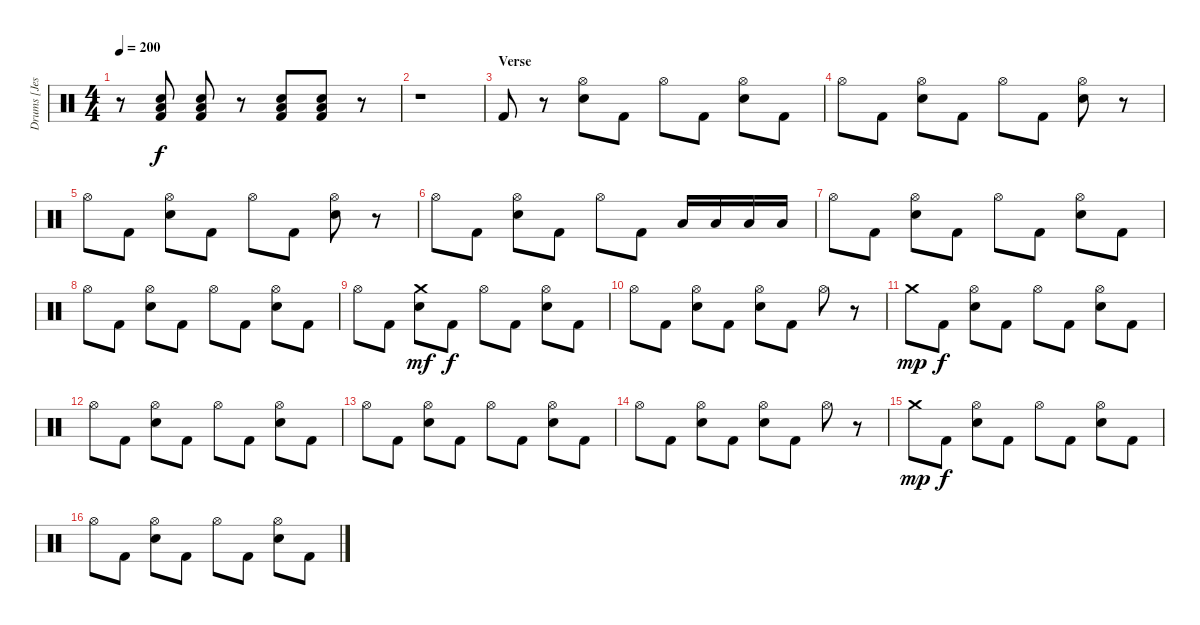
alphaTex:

\track ("Drums [Jesse Ingelevics]" "Drums [Jes") {instrument percussion}
\staff {score}
\articulation defaults
\ts (4 4)
\tempo 200
\clef neutral
\ks c
r.8{dy f} ("Low Floor Tom (hit)" "Electric Snare (hit)" "Kick (hit) 2").8 ("Low Floor Tom (hit)" "Electric Snare (hit)" "Kick (hit) 2").8 r.8 ("Low Floor Tom (hit)" "Electric Snare (hit)" "Kick (hit) 2").8 ("Low Floor Tom (hit)" "Electric Snare (hit)" "Kick (hit) 2").8 r.8 |
r.1 |
\section ("" "Verse")
"Kick (hit) 2".8 r.8 ("Hi-Hat (open)" "Electric Snare (hit)").8 "Kick (hit) 2".8 "Hi-Hat (open)".8 "Kick (hit) 2".8 ("Hi-Hat (open)" "Electric Snare (hit)").8 "Kick (hit) 2".8 |
"Hi-Hat (open)".8 "Kick (hit) 2".8 ("Hi-Hat (open)" "Electric Snare (hit)").8 "Kick (hit) 2".8 "Hi-Hat (open)".8 "Kick (hit) 2".8 ("Hi-Hat (open)" "Electric Snare (hit)").8 r.8 |
"Hi-Hat (open)".8 "Kick (hit) 2".8 ("Hi-Hat (open)" "Electric Snare (hit)").8 "Kick (hit) 2".8 "Hi-Hat (open)".8 "Kick (hit) 2".8 ("Hi-Hat (open)" "Electric Snare (hit)").8 r.8 |
"Hi-Hat (open)".8 "Kick (hit) 2".8 ("Hi-Hat (open)" "Electric Snare (hit)").8 "Kick (hit) 2".8 "Hi-Hat (open)".8 "Kick (hit) 2".8 "Low Tom (hit)".16 "Low Tom (hit)".16 "Low Tom (hit)".16 "Low Tom (hit)".16 |
"Hi-Hat (open)".8 "Kick (hit) 2".8 ("Hi-Hat (open)" "Electric Snare (hit)").8 "Kick (hit) 2".8 "Hi-Hat (open)".8 "Kick (hit) 2".8 ("Hi-Hat (open)" "Electric Snare (hit)").8 "Kick (hit) 2".8 |
"Hi-Hat (open)".8 "Kick (hit) 2".8 ("Hi-Hat (open)" "Electric Snare (hit)").8 "Kick (hit) 2".8 "Hi-Hat (open)".8 "Kick (hit) 2".8 ("Hi-Hat (open)" "Electric Snare (hit)").8 "Kick (hit) 2".8 |
"Hi-Hat (open)".8 "Kick (hit) 2".8 ("Crash medium (hit)" "Electric Snare (hit)").8{dy mf} "Kick (hit) 2".8{dy f} "Hi-Hat (open)".8 "Kick (hit) 2".8 ("Hi-Hat (open)" "Electric Snare (hit)").8 "Kick (hit) 2".8 |
"Hi-Hat (open)".8 "Kick (hit) 2".8 ("Hi-Hat (open)" "Electric Snare (hit)").8 "Kick (hit) 2".8 ("Hi-Hat (open)" "Electric Snare (hit)").8 "Kick (hit) 2".8 "Hi-Hat (open)".8 r.8 |
"Crash medium (hit)".8{dy mp} "Kick (hit) 2".8{dy f} ("Hi-Hat (open)" "Electric Snare (hit)").8 "Kick (hit) 2".8 "Hi-Hat (open)".8 "Kick (hit) 2".8 ("Hi-Hat (open)" "Electric Snare (hit)").8 "Kick (hit) 2".8 |
"Hi-Hat (open)".8 "Kick (hit) 2".8 ("Hi-Hat (open)" "Electric Snare (hit)").8 "Kick (hit) 2".8 "Hi-Hat (open)".8 "Kick (hit) 2".8 ("Hi-Hat (open)" "Electric Snare (hit)").8 "Kick (hit) 2".8 |
"Hi-Hat (open)".8 "Kick (hit) 2".8 ("Hi-Hat (open)" "Electric Snare (hit)").8 "Kick (hit) 2".8 "Hi-Hat (open)".8 "Kick (hit) 2".8 ("Hi-Hat (open)" "Electric Snare (hit)").8 "Kick (hit) 2".8 |
"Hi-Hat (open)".8 "Kick (hit) 2".8 ("Hi-Hat (open)" "Electric Snare (hit)").8 "Kick (hit) 2".8 ("Hi-Hat (open)" "Electric Snare (hit)").8 "Kick (hit) 2".8 "Hi-Hat (open)".8 r.8 |
"Crash medium (hit)".8{dy mp} "Kick (hit) 2".8{dy f} ("Hi-Hat (open)" "Electric Snare (hit)").8 "Kick (hit) 2".8 "Hi-Hat (open)".8 "Kick (hit) 2".8 ("Hi-Hat (open)" "Electric Snare (hit)").8 "Kick (hit) 2".8 |
"Hi-Hat (open)".8 "Kick (hit) 2".8 ("Hi-Hat (open)" "Electric Snare (hit)").8 "Kick (hit) 2".8 "Hi-Hat (open)".8 "Kick (hit) 2".8 ("Hi-Hat (open)" "Electric Snare (hit)").8 "Kick (hit) 2".8
